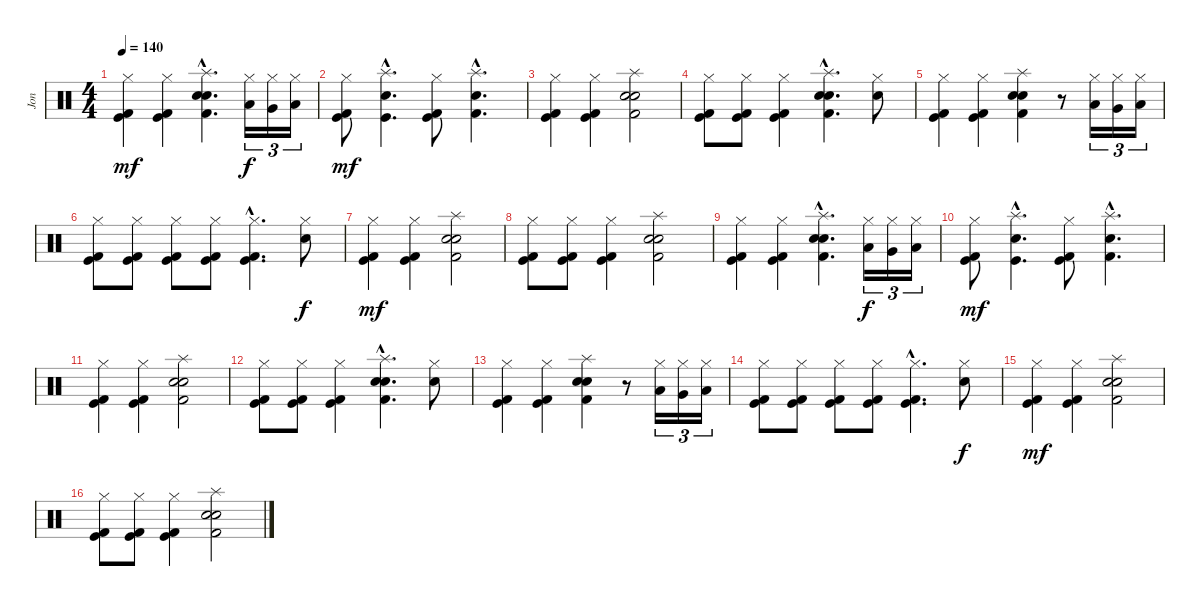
\track ("Jon" "Jon") {instrument percussion}
\staff {score}
\articulation defaults
\ts (4 4)
\tempo 140
\clef neutral
\ks c
("Kick (hit) 2" "Kick (hit)" "Hi-Hat (closed)").4{dy mf} ("Kick (hit) 2" "Kick (hit)" "Hi-Hat (closed)").4 ("Electric Snare (hit)"{hac} "Electric Snare (hit)"{hac} "Splash (hit)"{hac} "Kick (hit) 2"{hac}).4{d} ("Low Tom (hit)" "Hi-Hat (closed)").16{tu (3 2) dy f} ("Very Low Tom (hit)" "Hi-Hat (closed)").16{tu (3 2)} ("Low Floor Tom (hit)" "Hi-Hat (closed)").16{tu (3 2)} |
("Kick (hit)" "Kick (hit) 2" "Hi-Hat (closed)").8{dy mf} ("Electric Snare (hit)"{hac} "Kick (hit)"{hac} "Splash (hit)"{hac}).4{d} ("Kick (hit)" "Kick (hit) 2" "Hi-Hat (closed)").8 ("Electric Snare (hit)"{hac} "Kick (hit) 2"{hac} "Splash (hit)"{hac}).4{d} |
("Kick (hit)" "Hi-Hat (closed)" "Kick (hit) 2").4 ("Kick (hit)" "Hi-Hat (closed)" "Kick (hit) 2").4 ("Electric Snare (hit)" "Electric Snare (hit)" "Splash (hit)" "Kick (hit) 2").2 |
("Kick (hit) 2" "Kick (hit)" "Hi-Hat (closed)").8 ("Kick (hit) 2" "Kick (hit)" "Hi-Hat (closed)").8 ("Kick (hit) 2" "Kick (hit)" "Hi-Hat (closed)").4 ("Electric Snare (hit)"{hac} "Electric Snare (hit)"{hac} "Splash (hit)"{hac} "Kick (hit) 2"{hac}).4{d} ("Electric Snare (hit)" "Hi-Hat (closed)").8 |
("Kick (hit) 2" "Kick (hit)" "Hi-Hat (closed)").4 ("Kick (hit) 2" "Kick (hit)" "Hi-Hat (closed)").4 ("Electric Snare (hit)" "Electric Snare (hit)" "Splash (hit)" "Kick (hit) 2").4 r.8 ("Low Tom (hit)" "Hi-Hat (closed)").16{tu (3 2)} ("Very Low Tom (hit)" "Hi-Hat (closed)").16{tu (3 2)} ("Low Floor Tom (hit)" "Hi-Hat (closed)").16{tu (3 2)} |
("Kick (hit) 2" "Kick (hit)" "Hi-Hat (closed)").8 ("Kick (hit) 2" "Kick (hit)" "Hi-Hat (closed)").8 ("Kick (hit) 2" "Kick (hit)" "Hi-Hat (closed)").8 ("Kick (hit) 2" "Kick (hit)" "Hi-Hat (closed)").8 ("Kick (hit) 2"{hac} "Kick (hit)"{hac} "Hi-Hat (closed)"{hac}).4{d} ("Electric Snare (hit)" "Hi-Hat (closed)").8{dy f} |
("Kick (hit) 2" "Kick (hit)" "Hi-Hat (closed)").4{dy mf} ("Kick (hit) 2" "Kick (hit)" "Hi-Hat (closed)").4 ("Electric Snare (hit)" "Electric Snare (hit)" "Splash (hit)" "Kick (hit) 2").2 |
("Kick (hit) 2" "Kick (hit)" "Hi-Hat (closed)").8 ("Kick (hit) 2" "Kick (hit)" "Hi-Hat (closed)").8 ("Kick (hit) 2" "Kick (hit)" "Hi-Hat (closed)").4 ("Electric Snare (hit)" "Electric Snare (hit)" "Splash (hit)" "Kick (hit) 2").2 |
("Kick (hit) 2" "Kick (hit)" "Hi-Hat (closed)").4 ("Kick (hit) 2" "Kick (hit)" "Hi-Hat (closed)").4 ("Electric Snare (hit)"{hac} "Electric Snare (hit)"{hac} "Splash (hit)"{hac} "Kick (hit) 2"{hac}).4{d} ("Low Tom (hit)" "Hi-Hat (closed)").16{tu (3 2) dy f} ("Very Low Tom (hit)" "Hi-Hat (closed)").16{tu (3 2)} ("Low Floor Tom (hit)" "Hi-Hat (closed)").16{tu (3 2)} |
("Kick (hit)" "Kick (hit) 2" "Hi-Hat (closed)").8{dy mf} ("Electric Snare (hit)"{hac} "Kick (hit)"{hac} "Splash (hit)"{hac}).4{d} ("Kick (hit)" "Kick (hit) 2" "Hi-Hat (closed)").8 ("Electric Snare (hit)"{hac} "Kick (hit) 2"{hac} "Splash (hit)"{hac}).4{d} |
("Kick (hit)" "Hi-Hat (closed)" "Kick (hit) 2").4 ("Kick (hit)" "Hi-Hat (closed)" "Kick (hit) 2").4 ("Electric Snare (hit)" "Electric Snare (hit)" "Splash (hit)" "Kick (hit) 2").2 |
("Kick (hit) 2" "Kick (hit)" "Hi-Hat (closed)").8 ("Kick (hit) 2" "Kick (hit)" "Hi-Hat (closed)").8 ("Kick (hit) 2" "Kick (hit)" "Hi-Hat (closed)").4 ("Electric Snare (hit)"{hac} "Electric Snare (hit)"{hac} "Splash (hit)"{hac} "Kick (hit) 2"{hac}).4{d} ("Electric Snare (hit)" "Hi-Hat (closed)").8 |
("Kick (hit) 2" "Kick (hit)" "Hi-Hat (closed)").4 ("Kick (hit) 2" "Kick (hit)" "Hi-Hat (closed)").4 ("Electric Snare (hit)" "Electric Snare (hit)" "Splash (hit)" "Kick (hit) 2").4 r.8 ("Low Tom (hit)" "Hi-Hat (closed)").16{tu (3 2)} ("Very Low Tom (hit)" "Hi-Hat (closed)").16{tu (3 2)} ("Low Floor Tom (hit)" "Hi-Hat (closed)").16{tu (3 2)} |
("Kick (hit) 2" "Kick (hit)" "Hi-Hat (closed)").8 ("Kick (hit) 2" "Kick (hit)" "Hi-Hat (closed)").8 ("Kick (hit) 2" "Kick (hit)" "Hi-Hat (closed)").8 ("Kick (hit) 2" "Kick (hit)" "Hi-Hat (closed)").8 ("Kick (hit) 2"{hac} "Kick (hit)"{hac} "Hi-Hat (closed)"{hac}).4{d} ("Electric Snare (hit)" "Hi-Hat (closed)").8{dy f} |
("Kick (hit) 2" "Kick (hit)" "Hi-Hat (closed)").4{dy mf} ("Kick (hit) 2" "Kick (hit)" "Hi-Hat (closed)").4 ("Electric Snare (hit)" "Electric Snare (hit)" "Splash (hit)" "Kick (hit) 2").2 |
("Kick (hit) 2" "Kick (hit)" "Hi-Hat (closed)").8 ("Kick (hit) 2" "Kick (hit)" "Hi-Hat (closed)").8 ("Kick (hit) 2" "Kick (hit)" "Hi-Hat (closed)").4 ("Electric Snare (hit)" "Electric Snare (hit)" "Splash (hit)" "Kick (hit) 2").2
